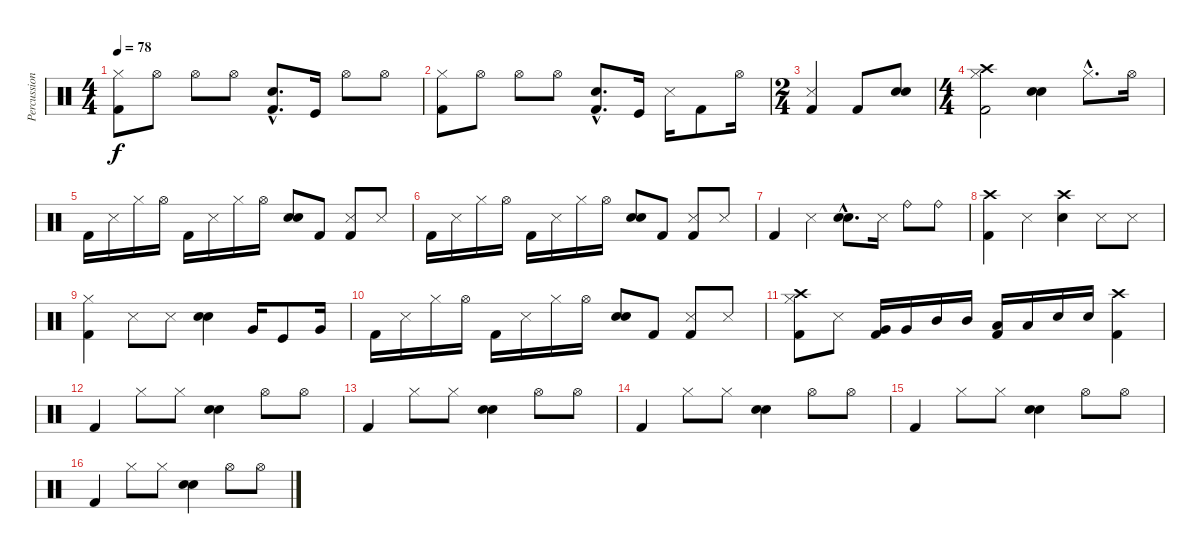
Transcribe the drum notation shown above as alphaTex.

\track ("Percussion" "Percussion") {instrument percussion}
\staff {score}
\articulation defaults
\ts (4 4)
\tempo 78
\clef neutral
\ks c
("Kick (hit) 2" "Hi-Hat (closed)").8{dy f} "Hi-Hat (open)".8 "Hi-Hat (open)".8 "Hi-Hat (open)".8 ("Kick (hit) 2"{hac} "Electric Snare (hit)"{hac}).8{d} "Kick (hit)".16 "Hi-Hat (open)".8 "Hi-Hat (open)".8 |
("Kick (hit) 2" "Hi-Hat (closed)").8 "Hi-Hat (open)".8 "Hi-Hat (open)".8 "Hi-Hat (open)".8 ("Kick (hit) 2"{hac} "Electric Snare (hit)"{hac}).8{d} "Kick (hit)".16 "Snare (side stick) 3".16 "Kick (hit) 2".8 "Hi-Hat (open)".16 |
\ts (2 4)
("Kick (hit) 2" "Snare (side stick) 3").4 "Kick (hit) 2".8 ("Electric Snare (hit)" "Snare (hit) 2").8 |
\ts (4 4)
("Kick (hit) 2" "Hi-Hat (closed)" "Crash high (hit)").2 ("Snare (hit) 2" "Electric Snare (hit)").4 "Hi-Hat (closed)"{hac}.8{d} "Hi-Hat (open)".16 |
"Kick (hit) 2".16 "Snare (side stick) 3".16 "Hi-Hat (closed)".16 "Hi-Hat (open)".16 "Kick (hit) 2".16 "Snare (side stick) 3".16 "Hi-Hat (closed)".16 "Hi-Hat (open)".16 ("Electric Snare (hit)" "Snare (hit) 2").8 "Kick (hit) 2".8 ("Snare (side stick) 3" "Kick (hit) 2").8 "Snare (side stick) 3".8 |
"Kick (hit) 2".16 "Snare (side stick) 3".16 "Hi-Hat (closed)".16 "Hi-Hat (open)".16 "Kick (hit) 2".16 "Snare (side stick) 3".16 "Hi-Hat (closed)".16 "Hi-Hat (open)".16 ("Electric Snare (hit)" "Snare (hit) 2").8 "Kick (hit) 2".8 ("Snare (side stick) 3" "Kick (hit) 2").8 "Snare (side stick) 3".8 |
"Kick (hit) 2".4 "Snare (side stick) 3".4 ("Snare (hit) 2"{hac} "Electric Snare (hit)"{hac}).8{d} "Snare (side stick) 3".16 "Ride (bell)".8 "Ride (bell)".8 |
("Kick (hit) 2" "Crash high (hit)").4 "Snare (side stick) 3".4 ("Crash high (hit)" "Electric Snare (hit)").4 "Snare (side stick) 3".8 "Snare (side stick) 3".8 |
("Kick (hit) 2" "Hi-Hat (closed)").4 "Snare (side stick) 3".8 "Snare (side stick) 3".8 ("Electric Snare (hit)" "Snare (hit) 2").4 "Very Low Tom (hit)".16 "Kick (hit)".8 "Very Low Tom (hit)".16 |
"Kick (hit) 2".16 "Snare (side stick) 3".16 "Hi-Hat (closed)".16 "Hi-Hat (open)".16 "Kick (hit) 2".16 "Snare (side stick) 3".16 "Hi-Hat (closed)".16 "Hi-Hat (open)".16 ("Electric Snare (hit)" "Snare (hit) 2").8 "Kick (hit) 2".8 ("Snare (side stick) 3" "Kick (hit) 2").8 "Snare (side stick) 3".8 |
("Kick (hit) 2" "Hi-Hat (closed)" "Crash high (hit)").8 "Snare (side stick) 3".8 ("Very Low Tom (hit)" "Kick (hit) 2").16 "Very Low Tom (hit)".16 "Mid Tom (hit)".16 "Mid Tom (hit)".16 ("Low Floor Tom (hit)" "Kick (hit) 2").16 "Low Floor Tom (hit)".16 "Electric Snare (hit)".16 "Electric Snare (hit)".16 ("Crash high (hit)" "Kick (hit) 2").4 |
"Kick (hit) 2".4 "Hi-Hat (closed)".8 "Hi-Hat (closed)".8 ("Electric Snare (hit)" "Snare (hit) 2").4 "Hi-Hat (open)".8 "Hi-Hat (open)".8 |
"Kick (hit) 2".4 "Hi-Hat (closed)".8 "Hi-Hat (closed)".8 ("Electric Snare (hit)" "Snare (hit) 2").4 "Hi-Hat (open)".8 "Hi-Hat (open)".8 |
"Kick (hit) 2".4 "Hi-Hat (closed)".8 "Hi-Hat (closed)".8 ("Electric Snare (hit)" "Snare (hit) 2").4 "Hi-Hat (open)".8 "Hi-Hat (open)".8 |
"Kick (hit) 2".4 "Hi-Hat (closed)".8 "Hi-Hat (closed)".8 ("Electric Snare (hit)" "Snare (hit) 2").4 "Hi-Hat (open)".8 "Hi-Hat (open)".8 |
"Kick (hit) 2".4 "Hi-Hat (closed)".8 "Hi-Hat (closed)".8 ("Electric Snare (hit)" "Snare (hit) 2").4 "Hi-Hat (open)".8 "Hi-Hat (open)".8
